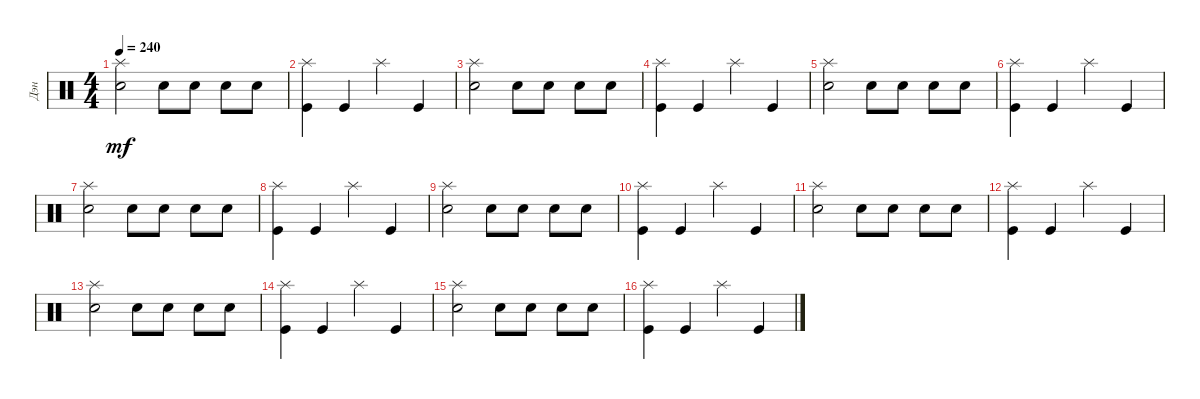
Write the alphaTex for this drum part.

\track ("Дэн" "Дэн") {instrument percussion}
\staff {score}
\articulation defaults
\ts (4 4)
\tempo 240
\clef neutral
\ks c
("Snare (hit) 2" "Splash (hit)").2{dy mf} "Snare (hit) 2".8 "Snare (hit) 2".8 "Snare (hit) 2".8 "Snare (hit) 2".8 |
("Kick (hit)" "Splash (hit)").4 "Kick (hit)".4 "Splash (hit)".4 "Kick (hit)".4 |
("Snare (hit) 2" "Splash (hit)").2 "Snare (hit) 2".8 "Snare (hit) 2".8 "Snare (hit) 2".8 "Snare (hit) 2".8 |
("Kick (hit)" "Splash (hit)").4 "Kick (hit)".4 "Splash (hit)".4 "Kick (hit)".4 |
("Snare (hit) 2" "Splash (hit)").2 "Snare (hit) 2".8 "Snare (hit) 2".8 "Snare (hit) 2".8 "Snare (hit) 2".8 |
("Kick (hit)" "Splash (hit)").4 "Kick (hit)".4 "Splash (hit)".4 "Kick (hit)".4 |
("Snare (hit) 2" "Splash (hit)").2 "Snare (hit) 2".8 "Snare (hit) 2".8 "Snare (hit) 2".8 "Snare (hit) 2".8 |
("Kick (hit)" "Splash (hit)").4 "Kick (hit)".4 "Splash (hit)".4 "Kick (hit)".4 |
("Snare (hit) 2" "Splash (hit)").2 "Snare (hit) 2".8 "Snare (hit) 2".8 "Snare (hit) 2".8 "Snare (hit) 2".8 |
("Kick (hit)" "Splash (hit)").4 "Kick (hit)".4 "Splash (hit)".4 "Kick (hit)".4 |
("Snare (hit) 2" "Splash (hit)").2 "Snare (hit) 2".8 "Snare (hit) 2".8 "Snare (hit) 2".8 "Snare (hit) 2".8 |
("Kick (hit)" "Splash (hit)").4 "Kick (hit)".4 "Splash (hit)".4 "Kick (hit)".4 |
("Snare (hit) 2" "Splash (hit)").2 "Snare (hit) 2".8 "Snare (hit) 2".8 "Snare (hit) 2".8 "Snare (hit) 2".8 |
("Kick (hit)" "Splash (hit)").4 "Kick (hit)".4 "Splash (hit)".4 "Kick (hit)".4 |
("Snare (hit) 2" "Splash (hit)").2 "Snare (hit) 2".8 "Snare (hit) 2".8 "Snare (hit) 2".8 "Snare (hit) 2".8 |
("Kick (hit)" "Splash (hit)").4 "Kick (hit)".4 "Splash (hit)".4 "Kick (hit)".4
